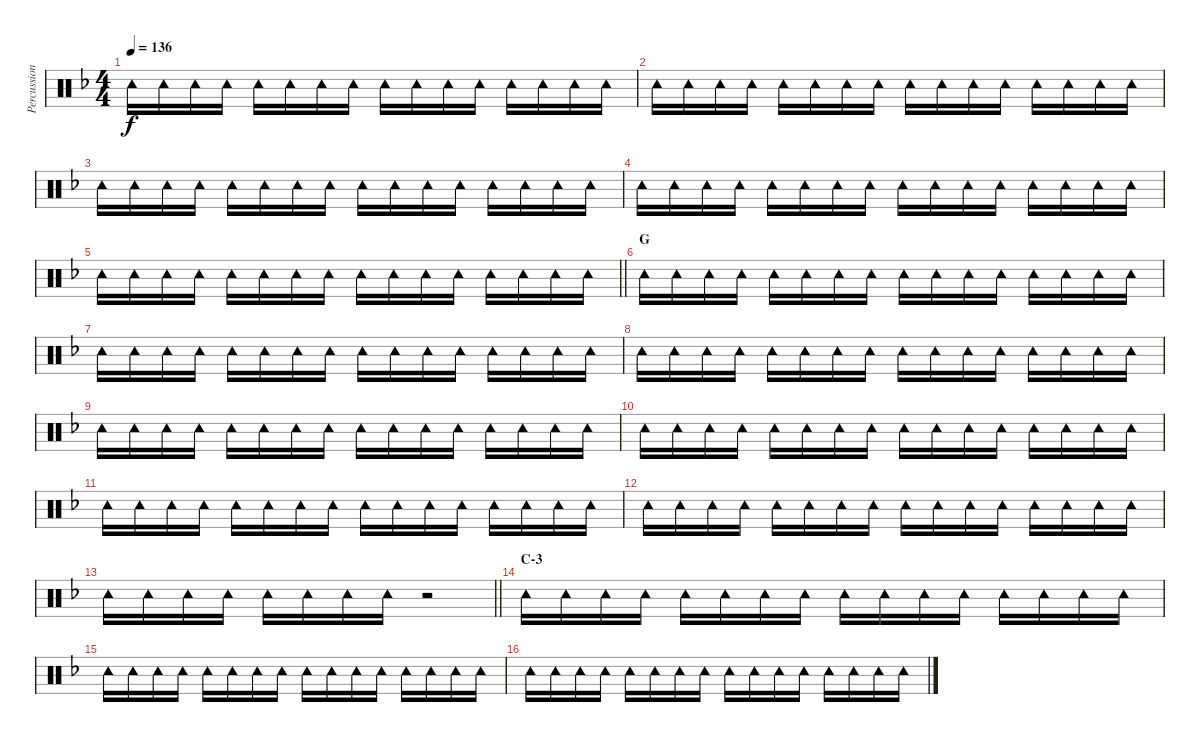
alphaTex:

\track ("Percussion" "Percussion") {instrument percussion}
\staff {score}
\articulation defaults
\ts (4 4)
\tempo 136
\clef neutral
\ks dminor "Tambourine (hit)".16{dy f} "Tambourine (hit)".16 "Tambourine (hit)".16 "Tambourine (hit)".16 "Tambourine (hit)".16 "Tambourine (hit)".16 "Tambourine (hit)".16 "Tambourine (hit)".16 "Tambourine (hit)".16 "Tambourine (hit)".16 "Tambourine (hit)".16 "Tambourine (hit)".16 "Tambourine (hit)".16 "Tambourine (hit)".16 "Tambourine (hit)".16 "Tambourine (hit)".16
|
"Tambourine (hit)".16 "Tambourine (hit)".16 "Tambourine (hit)".16 "Tambourine (hit)".16 "Tambourine (hit)".16 "Tambourine (hit)".16 "Tambourine (hit)".16 "Tambourine (hit)".16 "Tambourine (hit)".16 "Tambourine (hit)".16 "Tambourine (hit)".16 "Tambourine (hit)".16 "Tambourine (hit)".16 "Tambourine (hit)".16 "Tambourine (hit)".16 "Tambourine (hit)".16 |
"Tambourine (hit)".16 "Tambourine (hit)".16 "Tambourine (hit)".16 "Tambourine (hit)".16 "Tambourine (hit)".16 "Tambourine (hit)".16 "Tambourine (hit)".16 "Tambourine (hit)".16 "Tambourine (hit)".16 "Tambourine (hit)".16 "Tambourine (hit)".16 "Tambourine (hit)".16 "Tambourine (hit)".16 "Tambourine (hit)".16 "Tambourine (hit)".16 "Tambourine (hit)".16 |
"Tambourine (hit)".16 "Tambourine (hit)".16 "Tambourine (hit)".16 "Tambourine (hit)".16 "Tambourine (hit)".16 "Tambourine (hit)".16 "Tambourine (hit)".16 "Tambourine (hit)".16 "Tambourine (hit)".16 "Tambourine (hit)".16 "Tambourine (hit)".16 "Tambourine (hit)".16 "Tambourine (hit)".16 "Tambourine (hit)".16 "Tambourine (hit)".16 "Tambourine (hit)".16 |
\barLineRight lightlight "Tambourine (hit)".16 "Tambourine (hit)".16 "Tambourine (hit)".16 "Tambourine (hit)".16 "Tambourine (hit)".16 "Tambourine (hit)".16 "Tambourine (hit)".16 "Tambourine (hit)".16 "Tambourine (hit)".16 "Tambourine (hit)".16 "Tambourine (hit)".16 "Tambourine (hit)".16 "Tambourine (hit)".16 "Tambourine (hit)".16 "Tambourine (hit)".16 "Tambourine (hit)".16
|
\section ("" "G")
"Tambourine (hit)".16 "Tambourine (hit)".16 "Tambourine (hit)".16 "Tambourine (hit)".16 "Tambourine (hit)".16 "Tambourine (hit)".16 "Tambourine (hit)".16 "Tambourine (hit)".16 "Tambourine (hit)".16 "Tambourine (hit)".16 "Tambourine (hit)".16 "Tambourine (hit)".16 "Tambourine (hit)".16 "Tambourine (hit)".16 "Tambourine (hit)".16 "Tambourine (hit)".16 |
"Tambourine (hit)".16 "Tambourine (hit)".16 "Tambourine (hit)".16 "Tambourine (hit)".16 "Tambourine (hit)".16 "Tambourine (hit)".16 "Tambourine (hit)".16 "Tambourine (hit)".16 "Tambourine (hit)".16 "Tambourine (hit)".16 "Tambourine (hit)".16 "Tambourine (hit)".16 "Tambourine (hit)".16 "Tambourine (hit)".16 "Tambourine (hit)".16 "Tambourine (hit)".16 |
"Tambourine (hit)".16 "Tambourine (hit)".16 "Tambourine (hit)".16 "Tambourine (hit)".16 "Tambourine (hit)".16 "Tambourine (hit)".16 "Tambourine (hit)".16 "Tambourine (hit)".16 "Tambourine (hit)".16 "Tambourine (hit)".16 "Tambourine (hit)".16 "Tambourine (hit)".16 "Tambourine (hit)".16 "Tambourine (hit)".16 "Tambourine (hit)".16 "Tambourine (hit)".16 |
"Tambourine (hit)".16 "Tambourine (hit)".16 "Tambourine (hit)".16 "Tambourine (hit)".16 "Tambourine (hit)".16 "Tambourine (hit)".16 "Tambourine (hit)".16 "Tambourine (hit)".16 "Tambourine (hit)".16 "Tambourine (hit)".16 "Tambourine (hit)".16 "Tambourine (hit)".16 "Tambourine (hit)".16 "Tambourine (hit)".16 "Tambourine (hit)".16 "Tambourine (hit)".16 |
"Tambourine (hit)".16 "Tambourine (hit)".16 "Tambourine (hit)".16 "Tambourine (hit)".16 "Tambourine (hit)".16 "Tambourine (hit)".16 "Tambourine (hit)".16 "Tambourine (hit)".16 "Tambourine (hit)".16 "Tambourine (hit)".16 "Tambourine (hit)".16 "Tambourine (hit)".16 "Tambourine (hit)".16 "Tambourine (hit)".16 "Tambourine (hit)".16 "Tambourine (hit)".16 |
"Tambourine (hit)".16 "Tambourine (hit)".16 "Tambourine (hit)".16 "Tambourine (hit)".16 "Tambourine (hit)".16 "Tambourine (hit)".16 "Tambourine (hit)".16 "Tambourine (hit)".16 "Tambourine (hit)".16 "Tambourine (hit)".16 "Tambourine (hit)".16 "Tambourine (hit)".16 "Tambourine (hit)".16 "Tambourine (hit)".16 "Tambourine (hit)".16 "Tambourine (hit)".16 |
"Tambourine (hit)".16 "Tambourine (hit)".16 "Tambourine (hit)".16 "Tambourine (hit)".16 "Tambourine (hit)".16 "Tambourine (hit)".16 "Tambourine (hit)".16 "Tambourine (hit)".16 "Tambourine (hit)".16 "Tambourine (hit)".16 "Tambourine (hit)".16 "Tambourine (hit)".16 "Tambourine (hit)".16 "Tambourine (hit)".16 "Tambourine (hit)".16 "Tambourine (hit)".16 |
\barLineRight lightlight "Tambourine (hit)".16 "Tambourine (hit)".16 "Tambourine (hit)".16 "Tambourine (hit)".16 "Tambourine (hit)".16 "Tambourine (hit)".16 "Tambourine (hit)".16 "Tambourine (hit)".16
r.2 |
\section ("" "C-3")
"Tambourine (hit)".16 "Tambourine (hit)".16 "Tambourine (hit)".16 "Tambourine (hit)".16 "Tambourine (hit)".16 "Tambourine (hit)".16 "Tambourine (hit)".16 "Tambourine (hit)".16 "Tambourine (hit)".16 "Tambourine (hit)".16 "Tambourine (hit)".16 "Tambourine (hit)".16 "Tambourine (hit)".16 "Tambourine (hit)".16 "Tambourine (hit)".16 "Tambourine (hit)".16 |
"Tambourine (hit)".16 "Tambourine (hit)".16 "Tambourine (hit)".16 "Tambourine (hit)".16 "Tambourine (hit)".16 "Tambourine (hit)".16 "Tambourine (hit)".16 "Tambourine (hit)".16 "Tambourine (hit)".16 "Tambourine (hit)".16 "Tambourine (hit)".16 "Tambourine (hit)".16 "Tambourine (hit)".16 "Tambourine (hit)".16 "Tambourine (hit)".16 "Tambourine (hit)".16 |
"Tambourine (hit)".16 "Tambourine (hit)".16 "Tambourine (hit)".16 "Tambourine (hit)".16 "Tambourine (hit)".16 "Tambourine (hit)".16 "Tambourine (hit)".16 "Tambourine (hit)".16 "Tambourine (hit)".16 "Tambourine (hit)".16 "Tambourine (hit)".16 "Tambourine (hit)".16 "Tambourine (hit)".16 "Tambourine (hit)".16 "Tambourine (hit)".16 "Tambourine (hit)".16
